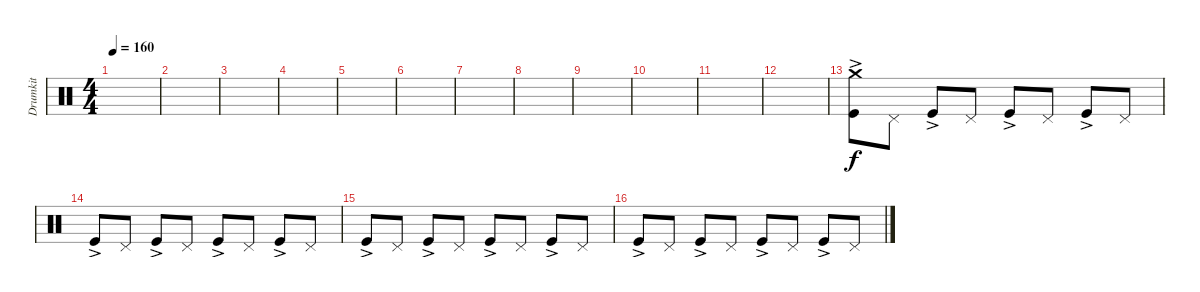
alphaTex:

\track ("Drumkit" "Drumkit") {instrument percussion}
\staff {score}
\articulation defaults
\ts (4 4)
\tempo 160
\clef neutral
\ks c
|
|
|
|
|
|
|
|
|
|
|
|
("Crash medium (hit)" "Kick (hit)"{ac}).8 "Pedal Hi-Hat (hit)".8 "Kick (hit)"{ac}.8 "Pedal Hi-Hat (hit)".8 "Kick (hit)"{ac}.8 "Pedal Hi-Hat (hit)".8 "Kick (hit)"{ac}.8 "Pedal Hi-Hat (hit)".8 |
"Kick (hit)"{ac}.8 "Pedal Hi-Hat (hit)".8 "Kick (hit)"{ac}.8 "Pedal Hi-Hat (hit)".8 "Kick (hit)"{ac}.8 "Pedal Hi-Hat (hit)".8 "Kick (hit)"{ac}.8 "Pedal Hi-Hat (hit)".8 |
"Kick (hit)"{ac}.8 "Pedal Hi-Hat (hit)".8 "Kick (hit)"{ac}.8 "Pedal Hi-Hat (hit)".8 "Kick (hit)"{ac}.8 "Pedal Hi-Hat (hit)".8 "Kick (hit)"{ac}.8 "Pedal Hi-Hat (hit)".8 |
"Kick (hit)"{ac}.8 "Pedal Hi-Hat (hit)".8 "Kick (hit)"{ac}.8 "Pedal Hi-Hat (hit)".8 "Kick (hit)"{ac}.8 "Pedal Hi-Hat (hit)".8 "Kick (hit)"{ac}.8 "Pedal Hi-Hat (hit)".8
